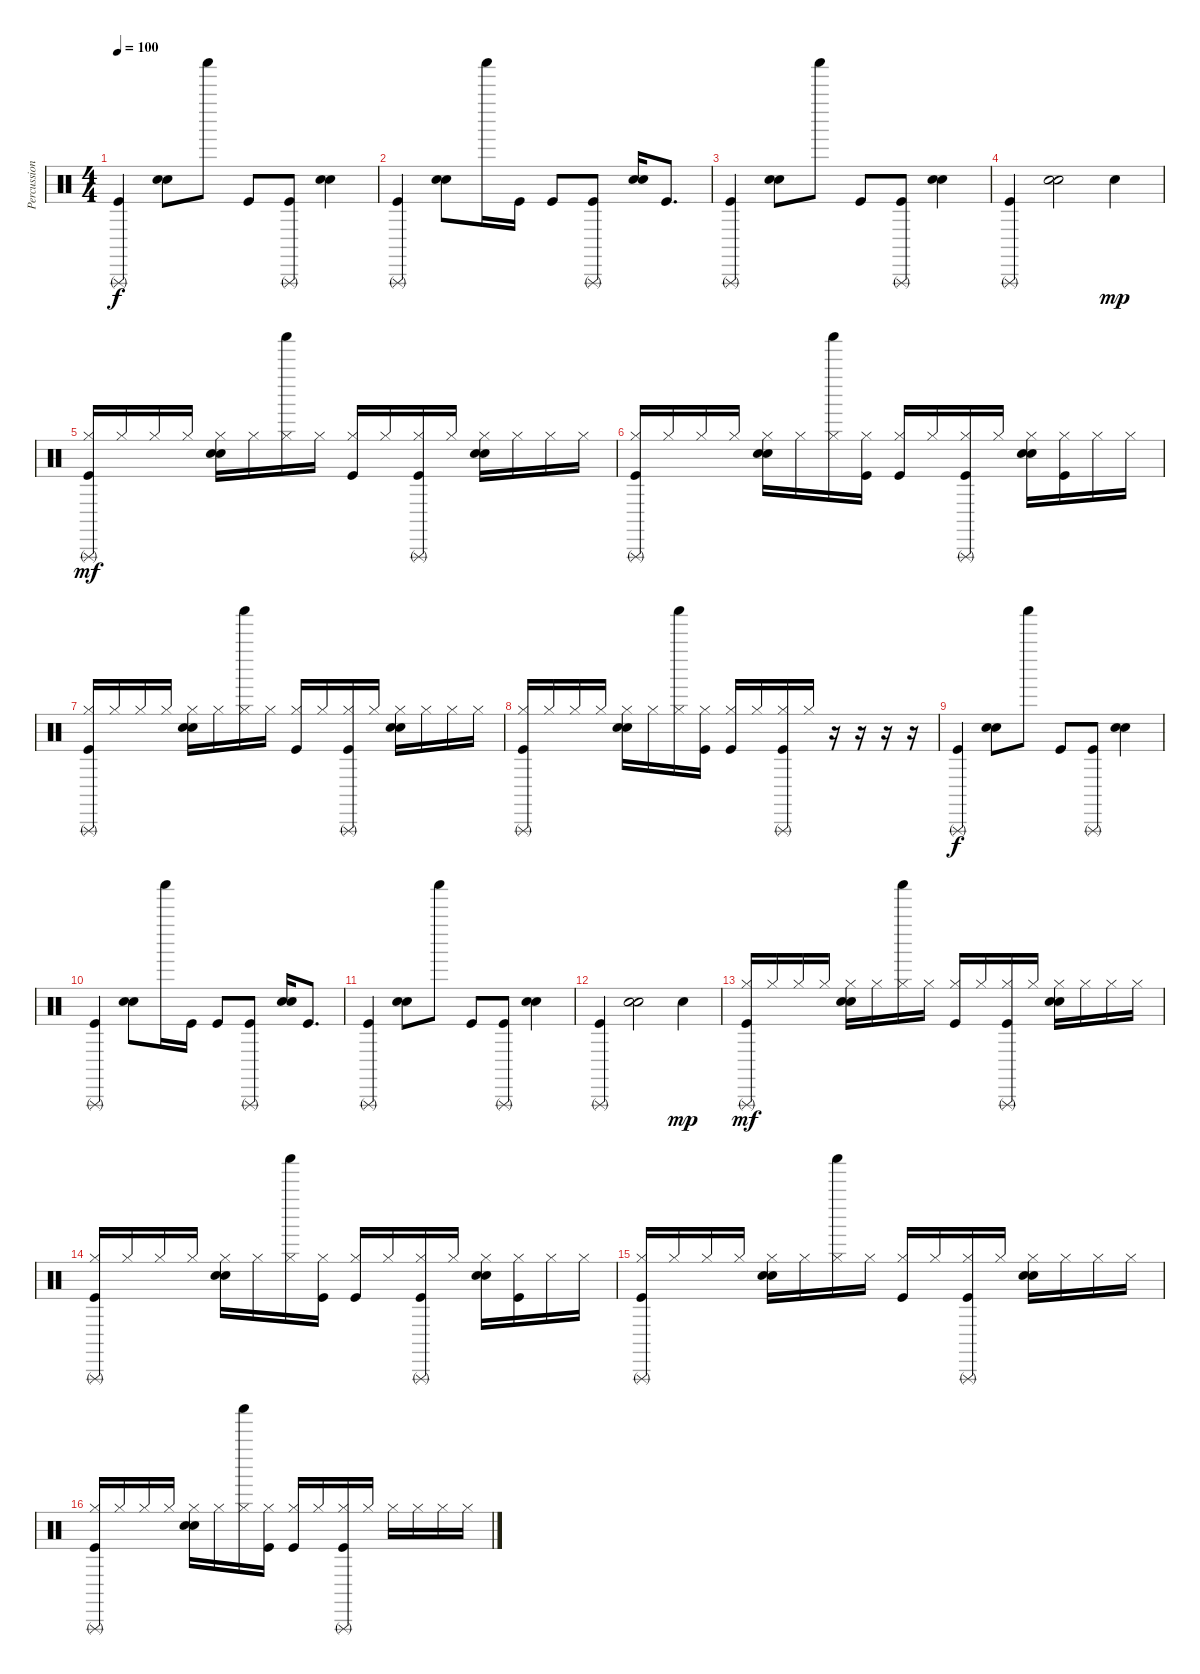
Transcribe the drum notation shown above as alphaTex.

\track ("Percussion" "Percussion") {instrument percussion}
\staff {score}
\articulation defaults
\ts (4 4)
\tempo 100
\clef neutral
\ks c
("Triangle (rnute)" "Kick (hit)").4{dy f} ("Hand Clap (hit)" "Electric Snare (hit)").8 "Shaker (hit)".8 "Kick (hit)".8 ("Triangle (rnute)" "Kick (hit)").8 ("Hand Clap (hit)" "Electric Snare (hit)").4 |
("Triangle (rnute)" "Kick (hit)").4 ("Hand Clap (hit)" "Electric Snare (hit)").8 "Shaker (hit)".16 "Kick (hit)".16 "Kick (hit)".8 ("Triangle (rnute)" "Kick (hit)").8 ("Hand Clap (hit)" "Electric Snare (hit)").16 "Kick (hit)".8{d} |
("Triangle (rnute)" "Kick (hit)").4 ("Hand Clap (hit)" "Electric Snare (hit)").8 "Shaker (hit)".8 "Kick (hit)".8 ("Triangle (rnute)" "Kick (hit)").8 ("Hand Clap (hit)" "Electric Snare (hit)").4 |
("Triangle (rnute)" "Kick (hit)").4 ("Hand Clap (hit)" "Electric Snare (hit)").2 "Electric Snare (hit)".4{dy mp} |
("Triangle (rnute)" "Hi-Hat (closed)" "Kick (hit)").16{dy mf} "Hi-Hat (closed)".16 "Hi-Hat (closed)".16 "Hi-Hat (closed)".16 ("Hi-Hat (closed)" "Hand Clap (hit)" "Electric Snare (hit)").16 "Hi-Hat (closed)".16 ("Shaker (hit)" "Hi-Hat (closed)").16 "Hi-Hat (closed)".16 ("Hi-Hat (closed)" "Kick (hit)").16 "Hi-Hat (closed)".16 ("Triangle (rnute)" "Hi-Hat (closed)" "Kick (hit)").16 "Hi-Hat (closed)".16 ("Hi-Hat (closed)" "Hand Clap (hit)" "Electric Snare (hit)").16 "Hi-Hat (closed)".16 "Hi-Hat (closed)".16 "Hi-Hat (closed)".16 |
("Triangle (rnute)" "Hi-Hat (closed)" "Kick (hit)").16 "Hi-Hat (closed)".16 "Hi-Hat (closed)".16 "Hi-Hat (closed)".16 ("Hi-Hat (closed)" "Hand Clap (hit)" "Electric Snare (hit)").16 "Hi-Hat (closed)".16 ("Shaker (hit)" "Hi-Hat (closed)").16 ("Hi-Hat (closed)" "Kick (hit)").16 ("Hi-Hat (closed)" "Kick (hit)").16 "Hi-Hat (closed)".16 ("Triangle (rnute)" "Hi-Hat (closed)" "Kick (hit)").16 "Hi-Hat (closed)".16 ("Hi-Hat (closed)" "Hand Clap (hit)" "Electric Snare (hit)").16 ("Hi-Hat (closed)" "Kick (hit)").16 "Hi-Hat (closed)".16 "Hi-Hat (closed)".16 |
("Triangle (rnute)" "Hi-Hat (closed)" "Kick (hit)").16 "Hi-Hat (closed)".16 "Hi-Hat (closed)".16 "Hi-Hat (closed)".16 ("Hi-Hat (closed)" "Hand Clap (hit)" "Electric Snare (hit)").16 "Hi-Hat (closed)".16 ("Shaker (hit)" "Hi-Hat (closed)").16 "Hi-Hat (closed)".16 ("Hi-Hat (closed)" "Kick (hit)").16 "Hi-Hat (closed)".16 ("Triangle (rnute)" "Hi-Hat (closed)" "Kick (hit)").16 "Hi-Hat (closed)".16 ("Hi-Hat (closed)" "Hand Clap (hit)" "Electric Snare (hit)").16 "Hi-Hat (closed)".16 "Hi-Hat (closed)".16 "Hi-Hat (closed)".16 |
("Triangle (rnute)" "Hi-Hat (closed)" "Kick (hit)").16 "Hi-Hat (closed)".16 "Hi-Hat (closed)".16 "Hi-Hat (closed)".16 ("Hi-Hat (closed)" "Hand Clap (hit)" "Electric Snare (hit)").16 "Hi-Hat (closed)".16 ("Shaker (hit)" "Hi-Hat (closed)").16 ("Hi-Hat (closed)" "Kick (hit)").16 ("Hi-Hat (closed)" "Kick (hit)").16 "Hi-Hat (closed)".16 ("Triangle (rnute)" "Hi-Hat (closed)" "Kick (hit)").16 "Hi-Hat (closed)".16 r.16 r.16 r.16 r.16 |
("Triangle (rnute)" "Kick (hit)").4{dy f} ("Hand Clap (hit)" "Electric Snare (hit)").8 "Shaker (hit)".8 "Kick (hit)".8 ("Triangle (rnute)" "Kick (hit)").8 ("Hand Clap (hit)" "Electric Snare (hit)").4 |
("Triangle (rnute)" "Kick (hit)").4 ("Hand Clap (hit)" "Electric Snare (hit)").8 "Shaker (hit)".16 "Kick (hit)".16 "Kick (hit)".8 ("Triangle (rnute)" "Kick (hit)").8 ("Hand Clap (hit)" "Electric Snare (hit)").16 "Kick (hit)".8{d} |
("Triangle (rnute)" "Kick (hit)").4 ("Hand Clap (hit)" "Electric Snare (hit)").8 "Shaker (hit)".8 "Kick (hit)".8 ("Triangle (rnute)" "Kick (hit)").8 ("Hand Clap (hit)" "Electric Snare (hit)").4 |
("Triangle (rnute)" "Kick (hit)").4 ("Hand Clap (hit)" "Electric Snare (hit)").2 "Electric Snare (hit)".4{dy mp} |
("Triangle (rnute)" "Hi-Hat (closed)" "Kick (hit)").16{dy mf} "Hi-Hat (closed)".16 "Hi-Hat (closed)".16 "Hi-Hat (closed)".16 ("Hi-Hat (closed)" "Hand Clap (hit)" "Electric Snare (hit)").16 "Hi-Hat (closed)".16 ("Shaker (hit)" "Hi-Hat (closed)").16 "Hi-Hat (closed)".16 ("Hi-Hat (closed)" "Kick (hit)").16 "Hi-Hat (closed)".16 ("Triangle (rnute)" "Hi-Hat (closed)" "Kick (hit)").16 "Hi-Hat (closed)".16 ("Hi-Hat (closed)" "Hand Clap (hit)" "Electric Snare (hit)").16 "Hi-Hat (closed)".16 "Hi-Hat (closed)".16 "Hi-Hat (closed)".16 |
("Triangle (rnute)" "Hi-Hat (closed)" "Kick (hit)").16 "Hi-Hat (closed)".16 "Hi-Hat (closed)".16 "Hi-Hat (closed)".16 ("Hi-Hat (closed)" "Hand Clap (hit)" "Electric Snare (hit)").16 "Hi-Hat (closed)".16 ("Shaker (hit)" "Hi-Hat (closed)").16 ("Hi-Hat (closed)" "Kick (hit)").16 ("Hi-Hat (closed)" "Kick (hit)").16 "Hi-Hat (closed)".16 ("Triangle (rnute)" "Hi-Hat (closed)" "Kick (hit)").16 "Hi-Hat (closed)".16 ("Hi-Hat (closed)" "Hand Clap (hit)" "Electric Snare (hit)").16 ("Hi-Hat (closed)" "Kick (hit)").16 "Hi-Hat (closed)".16 "Hi-Hat (closed)".16 |
("Triangle (rnute)" "Hi-Hat (closed)" "Kick (hit)").16 "Hi-Hat (closed)".16 "Hi-Hat (closed)".16 "Hi-Hat (closed)".16 ("Hi-Hat (closed)" "Hand Clap (hit)" "Electric Snare (hit)").16 "Hi-Hat (closed)".16 ("Shaker (hit)" "Hi-Hat (closed)").16 "Hi-Hat (closed)".16 ("Hi-Hat (closed)" "Kick (hit)").16 "Hi-Hat (closed)".16 ("Triangle (rnute)" "Hi-Hat (closed)" "Kick (hit)").16 "Hi-Hat (closed)".16 ("Hi-Hat (closed)" "Hand Clap (hit)" "Electric Snare (hit)").16 "Hi-Hat (closed)".16 "Hi-Hat (closed)".16 "Hi-Hat (closed)".16 |
("Triangle (rnute)" "Hi-Hat (closed)" "Kick (hit)").16 "Hi-Hat (closed)".16 "Hi-Hat (closed)".16 "Hi-Hat (closed)".16 ("Hi-Hat (closed)" "Hand Clap (hit)" "Electric Snare (hit)").16 "Hi-Hat (closed)".16 ("Shaker (hit)" "Hi-Hat (closed)").16 ("Hi-Hat (closed)" "Kick (hit)").16 ("Hi-Hat (closed)" "Kick (hit)").16 "Hi-Hat (closed)".16 ("Triangle (rnute)" "Hi-Hat (closed)" "Kick (hit)").16 "Hi-Hat (closed)".16 "Hi-Hat (closed)".16 "Hi-Hat (closed)".16 "Hi-Hat (closed)".16 "Hi-Hat (closed)".16
